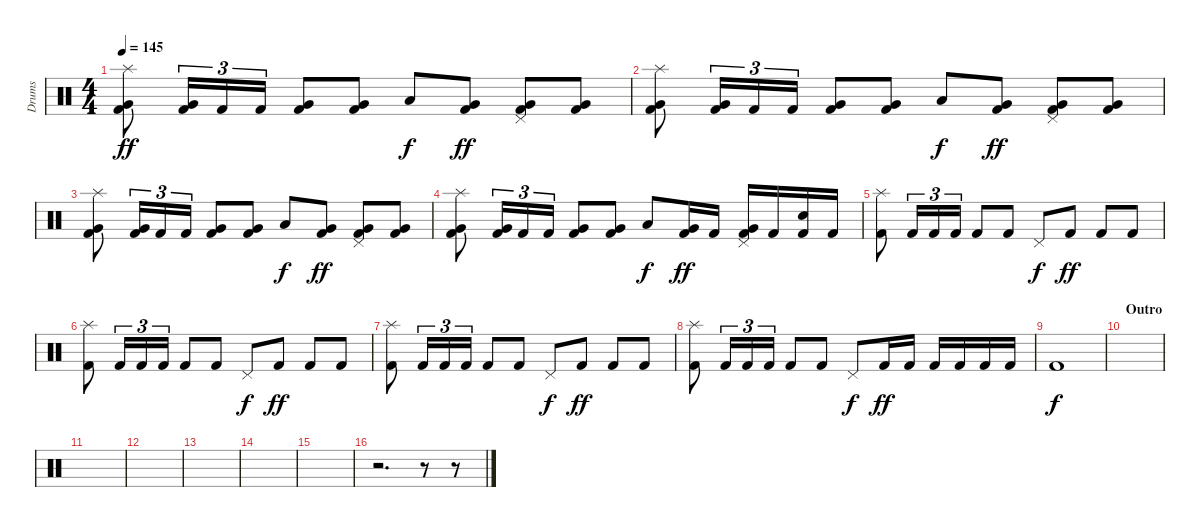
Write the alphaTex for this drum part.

\track ("Drums" "Drums") {instrument percussion}
\staff {score}
\articulation defaults
\ts (4 4)
\tempo 145
\clef neutral
\ks c
("Splash (hit)" "Very Low Tom (hit)" "Kick (hit) 2").8{dy ff} ("Very Low Tom (hit)" "Kick (hit) 2").16{tu (3 2)} "Kick (hit) 2".16{tu (3 2)} "Kick (hit) 2".16{tu (3 2)} ("Very Low Tom (hit)" "Kick (hit) 2").8 ("Very Low Tom (hit)" "Kick (hit) 2").8 "Low Tom (hit)".8{dy f} ("Very Low Tom (hit)" "Kick (hit) 2").8{dy ff} ("Pedal Hi-Hat (hit)" "Very Low Tom (hit)" "Kick (hit) 2").8 ("Very Low Tom (hit)" "Kick (hit) 2").8 |
("Splash (hit)" "Very Low Tom (hit)" "Kick (hit) 2").8 ("Very Low Tom (hit)" "Kick (hit) 2").16{tu (3 2)} "Kick (hit) 2".16{tu (3 2)} "Kick (hit) 2".16{tu (3 2)} ("Very Low Tom (hit)" "Kick (hit) 2").8 ("Very Low Tom (hit)" "Kick (hit) 2").8 "Low Tom (hit)".8{dy f} ("Very Low Tom (hit)" "Kick (hit) 2").8{dy ff} ("Pedal Hi-Hat (hit)" "Very Low Tom (hit)" "Kick (hit) 2").8 ("Very Low Tom (hit)" "Kick (hit) 2").8 |
("Splash (hit)" "Very Low Tom (hit)" "Kick (hit) 2").8 ("Very Low Tom (hit)" "Kick (hit) 2").16{tu (3 2)} "Kick (hit) 2".16{tu (3 2)} "Kick (hit) 2".16{tu (3 2)} ("Very Low Tom (hit)" "Kick (hit) 2").8 ("Very Low Tom (hit)" "Kick (hit) 2").8 "Low Tom (hit)".8{dy f} ("Very Low Tom (hit)" "Kick (hit) 2").8{dy ff} ("Pedal Hi-Hat (hit)" "Very Low Tom (hit)" "Kick (hit) 2").8 ("Very Low Tom (hit)" "Kick (hit) 2").8 |
("Splash (hit)" "Very Low Tom (hit)" "Kick (hit) 2").8 ("Very Low Tom (hit)" "Kick (hit) 2").16{tu (3 2)} "Kick (hit) 2".16{tu (3 2)} "Kick (hit) 2".16{tu (3 2)} ("Very Low Tom (hit)" "Kick (hit) 2").8 ("Very Low Tom (hit)" "Kick (hit) 2").8 "Low Tom (hit)".8{dy f} ("Very Low Tom (hit)" "Kick (hit) 2").16{dy ff} "Kick (hit) 2".16 ("Pedal Hi-Hat (hit)" "Very Low Tom (hit)" "Kick (hit) 2").16 "Kick (hit) 2".16 ("Metronome (bell)" "Kick (hit) 2").16 "Kick (hit) 2".16 |
("Splash (hit)" "Kick (hit) 2").8 "Kick (hit) 2".16{tu (3 2)} "Kick (hit) 2".16{tu (3 2)} "Kick (hit) 2".16{tu (3 2)} "Kick (hit) 2".8 "Kick (hit) 2".8 "Pedal Hi-Hat (hit)".8{dy f} "Kick (hit) 2".8{dy ff} "Kick (hit) 2".8 "Kick (hit) 2".8 |
("Splash (hit)" "Kick (hit) 2").8 "Kick (hit) 2".16{tu (3 2)} "Kick (hit) 2".16{tu (3 2)} "Kick (hit) 2".16{tu (3 2)} "Kick (hit) 2".8 "Kick (hit) 2".8 "Pedal Hi-Hat (hit)".8{dy f} "Kick (hit) 2".8{dy ff} "Kick (hit) 2".8 "Kick (hit) 2".8 |
("Splash (hit)" "Kick (hit) 2").8 "Kick (hit) 2".16{tu (3 2)} "Kick (hit) 2".16{tu (3 2)} "Kick (hit) 2".16{tu (3 2)} "Kick (hit) 2".8 "Kick (hit) 2".8 "Pedal Hi-Hat (hit)".8{dy f} "Kick (hit) 2".8{dy ff} "Kick (hit) 2".8 "Kick (hit) 2".8 |
("Splash (hit)" "Kick (hit) 2").8 "Kick (hit) 2".16{tu (3 2)} "Kick (hit) 2".16{tu (3 2)} "Kick (hit) 2".16{tu (3 2)} "Kick (hit) 2".8 "Kick (hit) 2".8 "Pedal Hi-Hat (hit)".8{dy f} "Kick (hit) 2".16{dy ff} "Kick (hit) 2".16 "Kick (hit) 2".16 "Kick (hit) 2".16 "Kick (hit) 2".16 "Kick (hit) 2".16 |
"Kick (hit) 2".1{dy f} |
\section ("" "Outro")
|
|
|
|
|
|
r.2{d} r.8 r.8
